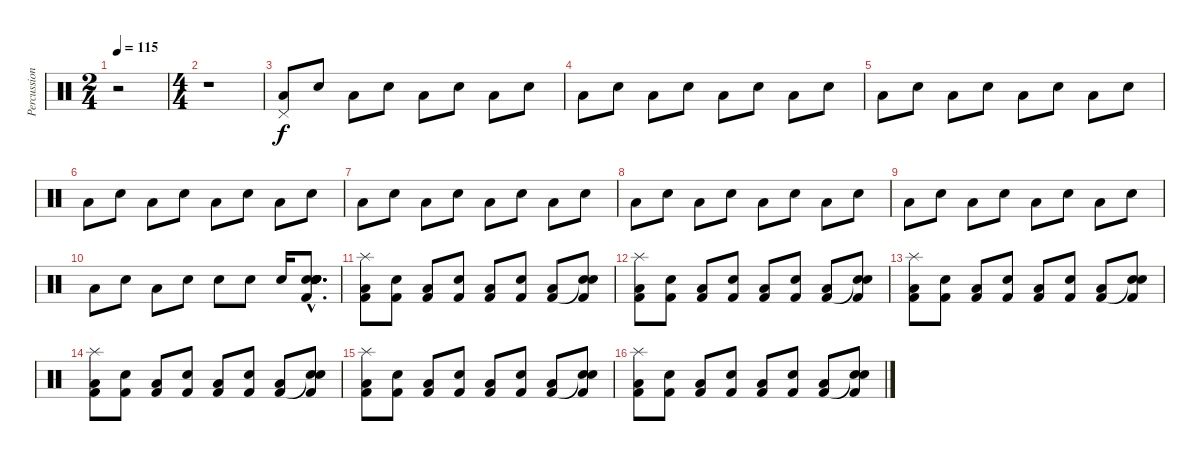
\track ("Percussions" "Percussion") {instrument percussion}
\staff {score}
\articulation defaults
\ts (2 4)
\tempo 115
\clef neutral
\ks c
r.2{dy f} |
\ts (4 4)
r.1 |
("Low Floor Tom (hit)" "Pedal Hi-Hat (hit)").8 "Electric Snare (hit)".8 "Low Floor Tom (hit)".8 "Electric Snare (hit)".8 "Low Floor Tom (hit)".8 "Electric Snare (hit)".8 "Low Floor Tom (hit)".8 "Electric Snare (hit)".8 |
"Low Floor Tom (hit)".8 "Electric Snare (hit)".8 "Low Floor Tom (hit)".8 "Electric Snare (hit)".8 "Low Floor Tom (hit)".8 "Electric Snare (hit)".8 "Low Floor Tom (hit)".8 "Electric Snare (hit)".8 |
"Low Floor Tom (hit)".8 "Electric Snare (hit)".8 "Low Floor Tom (hit)".8 "Electric Snare (hit)".8 "Low Floor Tom (hit)".8 "Electric Snare (hit)".8 "Low Floor Tom (hit)".8 "Electric Snare (hit)".8 |
"Low Floor Tom (hit)".8 "Electric Snare (hit)".8 "Low Floor Tom (hit)".8 "Electric Snare (hit)".8 "Low Floor Tom (hit)".8 "Electric Snare (hit)".8 "Low Floor Tom (hit)".8 "Electric Snare (hit)".8 |
"Low Floor Tom (hit)".8 "Electric Snare (hit)".8 "Low Floor Tom (hit)".8 "Electric Snare (hit)".8 "Low Floor Tom (hit)".8 "Electric Snare (hit)".8 "Low Floor Tom (hit)".8 "Electric Snare (hit)".8 |
"Low Floor Tom (hit)".8 "Electric Snare (hit)".8 "Low Floor Tom (hit)".8 "Electric Snare (hit)".8 "Low Floor Tom (hit)".8 "Electric Snare (hit)".8 "Low Floor Tom (hit)".8 "Electric Snare (hit)".8 |
"Low Floor Tom (hit)".8 "Electric Snare (hit)".8 "Low Floor Tom (hit)".8 "Electric Snare (hit)".8 "Low Floor Tom (hit)".8 "Electric Snare (hit)".8 "Low Floor Tom (hit)".8 "Electric Snare (hit)".8 |
"Low Floor Tom (hit)".8 "Electric Snare (hit)".8 "Low Floor Tom (hit)".8 "Electric Snare (hit)".8 "Electric Snare (hit)".8 "Electric Snare (hit)".8 "Electric Snare (hit)".16 ("Electric Snare (hit)"{hac} "Snare (hit) 2"{hac} "Electric Snare (hit)"{hac} "Electric Snare (hit)"{hac} "Snare (hit) 2"{hac} "Kick (hit) 2"{hac}).8{d} |
("Splash (hit)" "Kick (hit) 2" "Low Floor Tom (hit)").8 ("Kick (hit) 2" "Electric Snare (hit)").8 ("Kick (hit) 2" "Low Floor Tom (hit)").8 ("Kick (hit) 2" "Electric Snare (hit)").8 ("Kick (hit) 2" "Low Floor Tom (hit)").8 ("Kick (hit) 2" "Electric Snare (hit)").8 ("Kick (hit) 2" "Low Floor Tom (hit)").8 ("Snare (hit)"{t} "Kick (hit) 2" "Electric Snare (hit)").8 |
("Splash (hit)" "Kick (hit) 2" "Low Floor Tom (hit)").8 ("Kick (hit) 2" "Electric Snare (hit)").8 ("Kick (hit) 2" "Low Floor Tom (hit)").8 ("Kick (hit) 2" "Electric Snare (hit)").8 ("Kick (hit) 2" "Low Floor Tom (hit)").8 ("Kick (hit) 2" "Electric Snare (hit)").8 ("Kick (hit) 2" "Low Floor Tom (hit)").8 ("Snare (hit)"{t} "Kick (hit) 2" "Electric Snare (hit)").8 |
("Splash (hit)" "Kick (hit) 2" "Low Floor Tom (hit)").8 ("Kick (hit) 2" "Electric Snare (hit)").8 ("Kick (hit) 2" "Low Floor Tom (hit)").8 ("Kick (hit) 2" "Electric Snare (hit)").8 ("Kick (hit) 2" "Low Floor Tom (hit)").8 ("Kick (hit) 2" "Electric Snare (hit)").8 ("Kick (hit) 2" "Low Floor Tom (hit)").8 ("Snare (hit)"{t} "Kick (hit) 2" "Electric Snare (hit)").8 |
("Splash (hit)" "Kick (hit) 2" "Low Floor Tom (hit)").8 ("Kick (hit) 2" "Electric Snare (hit)").8 ("Kick (hit) 2" "Low Floor Tom (hit)").8 ("Kick (hit) 2" "Electric Snare (hit)").8 ("Kick (hit) 2" "Low Floor Tom (hit)").8 ("Kick (hit) 2" "Electric Snare (hit)").8 ("Kick (hit) 2" "Low Floor Tom (hit)").8 ("Snare (hit)"{t} "Kick (hit) 2" "Electric Snare (hit)").8 |
("Splash (hit)" "Kick (hit) 2" "Low Floor Tom (hit)").8 ("Kick (hit) 2" "Electric Snare (hit)").8 ("Kick (hit) 2" "Low Floor Tom (hit)").8 ("Kick (hit) 2" "Electric Snare (hit)").8 ("Kick (hit) 2" "Low Floor Tom (hit)").8 ("Kick (hit) 2" "Electric Snare (hit)").8 ("Kick (hit) 2" "Low Floor Tom (hit)").8 ("Snare (hit)"{t} "Kick (hit) 2" "Electric Snare (hit)").8 |
("Splash (hit)" "Kick (hit) 2" "Low Floor Tom (hit)").8 ("Kick (hit) 2" "Electric Snare (hit)").8 ("Kick (hit) 2" "Low Floor Tom (hit)").8 ("Kick (hit) 2" "Electric Snare (hit)").8 ("Kick (hit) 2" "Low Floor Tom (hit)").8 ("Kick (hit) 2" "Electric Snare (hit)").8 ("Kick (hit) 2" "Low Floor Tom (hit)").8 ("Snare (hit)"{t} "Kick (hit) 2" "Electric Snare (hit)").8
